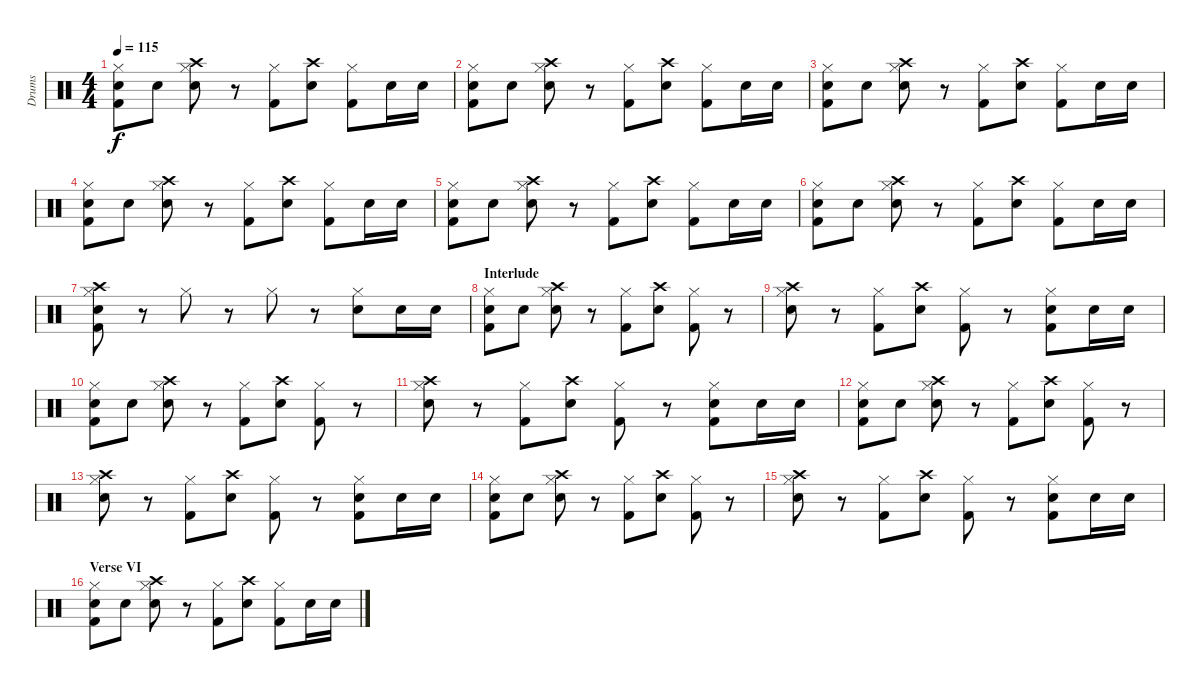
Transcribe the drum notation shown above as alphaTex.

\track ("Drums" "Drums") {instrument percussion}
\staff {score}
\articulation defaults
\ts (4 4)
\tempo 115
\clef neutral
\ks c
("Hi-Hat (closed)" "Kick (hit) 2" "Snare (hit) 2").8{dy f} "Snare (hit) 2".8 ("Hi-Hat (closed)" "Crash high (hit)" "Snare (hit) 2").8 r.8 ("Hi-Hat (closed)" "Kick (hit) 2").8 ("Crash high (hit)" "Snare (hit) 2").8 ("Hi-Hat (closed)" "Kick (hit) 2").8 "Snare (hit) 2".16 "Snare (hit) 2".16 |
("Hi-Hat (closed)" "Kick (hit) 2" "Snare (hit) 2").8 "Snare (hit) 2".8 ("Hi-Hat (closed)" "Crash high (hit)" "Snare (hit) 2").8 r.8 ("Hi-Hat (closed)" "Kick (hit) 2").8 ("Crash high (hit)" "Snare (hit) 2").8 ("Hi-Hat (closed)" "Kick (hit) 2").8 "Snare (hit) 2".16 "Snare (hit) 2".16 |
("Hi-Hat (closed)" "Kick (hit) 2" "Snare (hit) 2").8 "Snare (hit) 2".8 ("Hi-Hat (closed)" "Crash high (hit)" "Snare (hit) 2").8 r.8 ("Hi-Hat (closed)" "Kick (hit) 2").8 ("Crash high (hit)" "Snare (hit) 2").8 ("Hi-Hat (closed)" "Kick (hit) 2").8 "Snare (hit) 2".16 "Snare (hit) 2".16 |
("Hi-Hat (closed)" "Kick (hit) 2" "Snare (hit) 2").8 "Snare (hit) 2".8 ("Hi-Hat (closed)" "Crash high (hit)" "Snare (hit) 2").8 r.8 ("Hi-Hat (closed)" "Kick (hit) 2").8 ("Crash high (hit)" "Snare (hit) 2").8 ("Hi-Hat (closed)" "Kick (hit) 2").8 "Snare (hit) 2".16 "Snare (hit) 2".16 |
("Hi-Hat (closed)" "Kick (hit) 2" "Snare (hit) 2").8 "Snare (hit) 2".8 ("Hi-Hat (closed)" "Crash high (hit)" "Snare (hit) 2").8 r.8 ("Hi-Hat (closed)" "Kick (hit) 2").8 ("Crash high (hit)" "Snare (hit) 2").8 ("Hi-Hat (closed)" "Kick (hit) 2").8 "Snare (hit) 2".16 "Snare (hit) 2".16 |
("Hi-Hat (closed)" "Kick (hit) 2" "Snare (hit) 2").8 "Snare (hit) 2".8 ("Hi-Hat (closed)" "Crash high (hit)" "Snare (hit) 2").8 r.8 ("Hi-Hat (closed)" "Kick (hit) 2").8 ("Crash high (hit)" "Snare (hit) 2").8 ("Hi-Hat (closed)" "Kick (hit) 2").8 "Snare (hit) 2".16 "Snare (hit) 2".16 |
("Hi-Hat (closed)" "Kick (hit) 2" "Snare (hit) 2" "Crash high (hit)").8 r.8 "Hi-Hat (closed)".8 r.8 "Hi-Hat (closed)".8 r.8 ("Hi-Hat (closed)" "Snare (hit) 2").8 "Snare (hit) 2".16 "Snare (hit) 2".16 |
\section ("" "Interlude")
("Hi-Hat (closed)" "Kick (hit) 2" "Snare (hit) 2").8 "Snare (hit) 2".8 ("Hi-Hat (closed)" "Crash high (hit)" "Snare (hit) 2").8 r.8 ("Hi-Hat (closed)" "Kick (hit) 2").8 ("Crash high (hit)" "Snare (hit) 2").8 ("Hi-Hat (closed)" "Kick (hit) 2").8 r.8 |
("Hi-Hat (closed)" "Crash high (hit)" "Snare (hit) 2").8 r.8 ("Hi-Hat (closed)" "Kick (hit) 2").8 ("Crash high (hit)" "Snare (hit) 2").8 ("Hi-Hat (closed)" "Kick (hit) 2").8 r.8 ("Hi-Hat (closed)" "Kick (hit) 2" "Snare (hit) 2").8 "Snare (hit) 2".16 "Snare (hit) 2".16 |
("Hi-Hat (closed)" "Kick (hit) 2" "Snare (hit) 2").8 "Snare (hit) 2".8 ("Hi-Hat (closed)" "Crash high (hit)" "Snare (hit) 2").8 r.8 ("Hi-Hat (closed)" "Kick (hit) 2").8 ("Crash high (hit)" "Snare (hit) 2").8 ("Hi-Hat (closed)" "Kick (hit) 2").8 r.8 |
("Hi-Hat (closed)" "Crash high (hit)" "Snare (hit) 2").8 r.8 ("Hi-Hat (closed)" "Kick (hit) 2").8 ("Crash high (hit)" "Snare (hit) 2").8 ("Hi-Hat (closed)" "Kick (hit) 2").8 r.8 ("Hi-Hat (closed)" "Kick (hit) 2" "Snare (hit) 2").8 "Snare (hit) 2".16 "Snare (hit) 2".16 |
("Hi-Hat (closed)" "Kick (hit) 2" "Snare (hit) 2").8 "Snare (hit) 2".8 ("Hi-Hat (closed)" "Crash high (hit)" "Snare (hit) 2").8 r.8 ("Hi-Hat (closed)" "Kick (hit) 2").8 ("Crash high (hit)" "Snare (hit) 2").8 ("Hi-Hat (closed)" "Kick (hit) 2").8 r.8 |
("Hi-Hat (closed)" "Crash high (hit)" "Snare (hit) 2").8 r.8 ("Hi-Hat (closed)" "Kick (hit) 2").8 ("Crash high (hit)" "Snare (hit) 2").8 ("Hi-Hat (closed)" "Kick (hit) 2").8 r.8 ("Hi-Hat (closed)" "Kick (hit) 2" "Snare (hit) 2").8 "Snare (hit) 2".16 "Snare (hit) 2".16 |
("Hi-Hat (closed)" "Kick (hit) 2" "Snare (hit) 2").8 "Snare (hit) 2".8 ("Hi-Hat (closed)" "Crash high (hit)" "Snare (hit) 2").8 r.8 ("Hi-Hat (closed)" "Kick (hit) 2").8 ("Crash high (hit)" "Snare (hit) 2").8 ("Hi-Hat (closed)" "Kick (hit) 2").8 r.8 |
("Hi-Hat (closed)" "Crash high (hit)" "Snare (hit) 2").8 r.8 ("Hi-Hat (closed)" "Kick (hit) 2").8 ("Crash high (hit)" "Snare (hit) 2").8 ("Hi-Hat (closed)" "Kick (hit) 2").8 r.8 ("Hi-Hat (closed)" "Kick (hit) 2" "Snare (hit) 2").8 "Snare (hit) 2".16 "Snare (hit) 2".16 |
\section ("" "Verse VI")
("Hi-Hat (closed)" "Kick (hit) 2" "Snare (hit) 2").8 "Snare (hit) 2".8 ("Hi-Hat (closed)" "Crash high (hit)" "Snare (hit) 2").8 r.8 ("Hi-Hat (closed)" "Kick (hit) 2").8 ("Crash high (hit)" "Snare (hit) 2").8 ("Hi-Hat (closed)" "Kick (hit) 2").8 "Snare (hit) 2".16 "Snare (hit) 2".16
